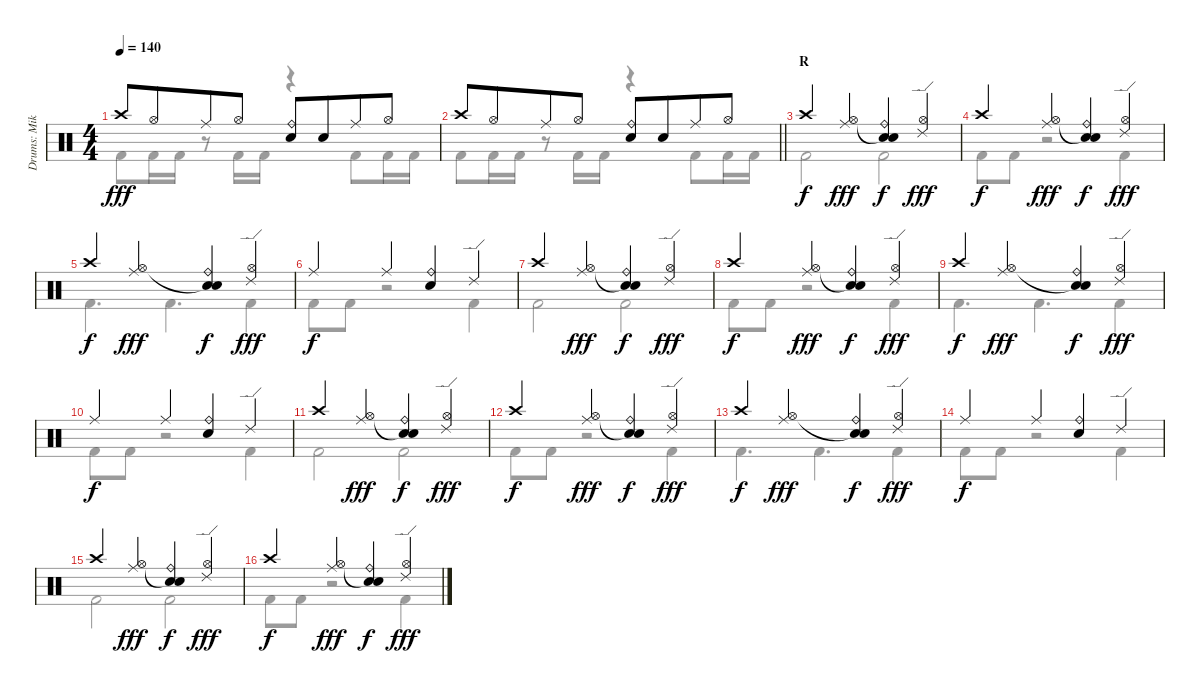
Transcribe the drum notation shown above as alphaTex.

\track ("Drums: Mike" "Drums: Mik") {instrument percussion}
\staff {score}
\articulation defaults
\voice
\ts (4 4)
\tempo 140
\clef neutral
\ks c "Crash high (hit)".8{dy fff} "Hi-Hat (open)".8{beam merge} "Ride (middle)".8 "Hi-Hat (open)".8
("Ride (bell)" "Snare (hit) 2").8 "Snare (hit) 2".8{beam merge} "Ride (middle)".8 "Hi-Hat (open)".8 |
\barLineRight lightlight "Crash high (hit)".8 "Hi-Hat (open)".8{beam merge} "Ride (middle)".8 "Hi-Hat (open)".8
("Ride (bell)" "Snare (hit) 2").8 "Snare (hit) 2".8{beam merge} "Ride (middle)".8 "Hi-Hat (open)".8 |
\section ("" "R")
"Crash high (hit)".4{dy f} ("Ride (middle)" "Hi-Hat (open)").4{dy fff} ("Ride (bell)" "Snare (hit)"{t} "Snare (hit) 2").4{dy f} ("Ride (edge) 2" "Hi-Hat (open)").4{dy fff} |
"Crash high (hit)".4{dy f} ("Ride (middle)" "Hi-Hat (open)").4{dy fff} ("Ride (bell)" "Snare (hit)"{t} "Snare (hit) 2").4{dy f} ("Ride (edge) 2" "Hi-Hat (open)").4{dy fff} |
"Crash high (hit)".4{dy f} ("Ride (middle)" "Hi-Hat (open)").4{dy fff} ("Ride (bell)" "Snare (hit)"{t} "Snare (hit) 2").4{dy f} ("Ride (edge) 2" "Hi-Hat (open)").4{dy fff} |
"Ride (middle)".4{dy f} "Ride (middle)".4 ("Ride (bell)" "Snare (hit) 2").4 "Ride (edge) 2".4 |
"Crash high (hit)".4 ("Ride (middle)" "Hi-Hat (open)").4{dy fff} ("Ride (bell)" "Snare (hit)"{t} "Snare (hit) 2").4{dy f} ("Ride (edge) 2" "Hi-Hat (open)").4{dy fff} |
"Crash high (hit)".4{dy f} ("Ride (middle)" "Hi-Hat (open)").4{dy fff} ("Ride (bell)" "Snare (hit)"{t} "Snare (hit) 2").4{dy f} ("Ride (edge) 2" "Hi-Hat (open)").4{dy fff} |
"Crash high (hit)".4{dy f} ("Ride (middle)" "Hi-Hat (open)").4{dy fff} ("Ride (bell)" "Snare (hit)"{t} "Snare (hit) 2").4{dy f} ("Ride (edge) 2" "Hi-Hat (open)").4{dy fff} |
"Ride (middle)".4{dy f} "Ride (middle)".4 ("Ride (bell)" "Snare (hit) 2").4 "Ride (edge) 2".4 |
"Crash high (hit)".4 ("Ride (middle)" "Hi-Hat (open)").4{dy fff} ("Ride (bell)" "Snare (hit)"{t} "Snare (hit) 2").4{dy f} ("Ride (edge) 2" "Hi-Hat (open)").4{dy fff} |
"Crash high (hit)".4{dy f} ("Ride (middle)" "Hi-Hat (open)").4{dy fff} ("Ride (bell)" "Snare (hit)"{t} "Snare (hit) 2").4{dy f} ("Ride (edge) 2" "Hi-Hat (open)").4{dy fff} |
"Crash high (hit)".4{dy f} ("Ride (middle)" "Hi-Hat (open)").4{dy fff} ("Ride (bell)" "Snare (hit)"{t} "Snare (hit) 2").4{dy f} ("Ride (edge) 2" "Hi-Hat (open)").4{dy fff} |
"Ride (middle)".4{dy f} "Ride (middle)".4 ("Ride (bell)" "Snare (hit) 2").4 "Ride (edge) 2".4 |
"Crash high (hit)".4 ("Ride (middle)" "Hi-Hat (open)").4{dy fff} ("Ride (bell)" "Snare (hit)"{t} "Snare (hit) 2").4{dy f} ("Ride (edge) 2" "Hi-Hat (open)").4{dy fff} |
"Crash high (hit)".4{dy f} ("Ride (middle)" "Hi-Hat (open)").4{dy fff} ("Ride (bell)" "Snare (hit)"{t} "Snare (hit) 2").4{dy f} ("Ride (edge) 2" "Hi-Hat (open)").4{dy fff}
\voice
\clef neutral
\ottava regular
\simile none
\ks c "Kick (hit) 2".8{dy fff} "Kick (hit) 2".16 "Kick (hit) 2".16
r.8 "Kick (hit) 2".16 "Kick (hit) 2".16 r.4 "Kick (hit) 2".8 "Kick (hit) 2".16 "Kick (hit) 2".16 |
\barLineRight lightlight "Kick (hit) 2".8 "Kick (hit) 2".16 "Kick (hit) 2".16
r.8 "Kick (hit) 2".16 "Kick (hit) 2".16 r.4 "Kick (hit) 2".8 "Kick (hit) 2".16 "Kick (hit) 2".16 |
"Kick (hit) 2".2{dy f} "Kick (hit) 2".2 |
"Kick (hit) 2".8 "Kick (hit) 2".8 r.2 "Kick (hit) 2".4 |
"Kick (hit) 2".4{d} "Kick (hit) 2".4{d} "Kick (hit) 2".4{dy fff} |
"Kick (hit) 2".8{dy f} "Kick (hit) 2".8 r.2 "Kick (hit) 2".4 |
"Kick (hit) 2".2 "Kick (hit) 2".2 |
"Kick (hit) 2".8 "Kick (hit) 2".8 r.2 "Kick (hit) 2".4 |
"Kick (hit) 2".4{d} "Kick (hit) 2".4{d} "Kick (hit) 2".4{dy fff} |
"Kick (hit) 2".8{dy f} "Kick (hit) 2".8 r.2 "Kick (hit) 2".4 |
"Kick (hit) 2".2 "Kick (hit) 2".2 |
"Kick (hit) 2".8 "Kick (hit) 2".8 r.2 "Kick (hit) 2".4 |
"Kick (hit) 2".4{d} "Kick (hit) 2".4{d} "Kick (hit) 2".4{dy fff} |
"Kick (hit) 2".8{dy f} "Kick (hit) 2".8 r.2 "Kick (hit) 2".4 |
"Kick (hit) 2".2 "Kick (hit) 2".2 |
"Kick (hit) 2".8 "Kick (hit) 2".8 r.2 "Kick (hit) 2".4
